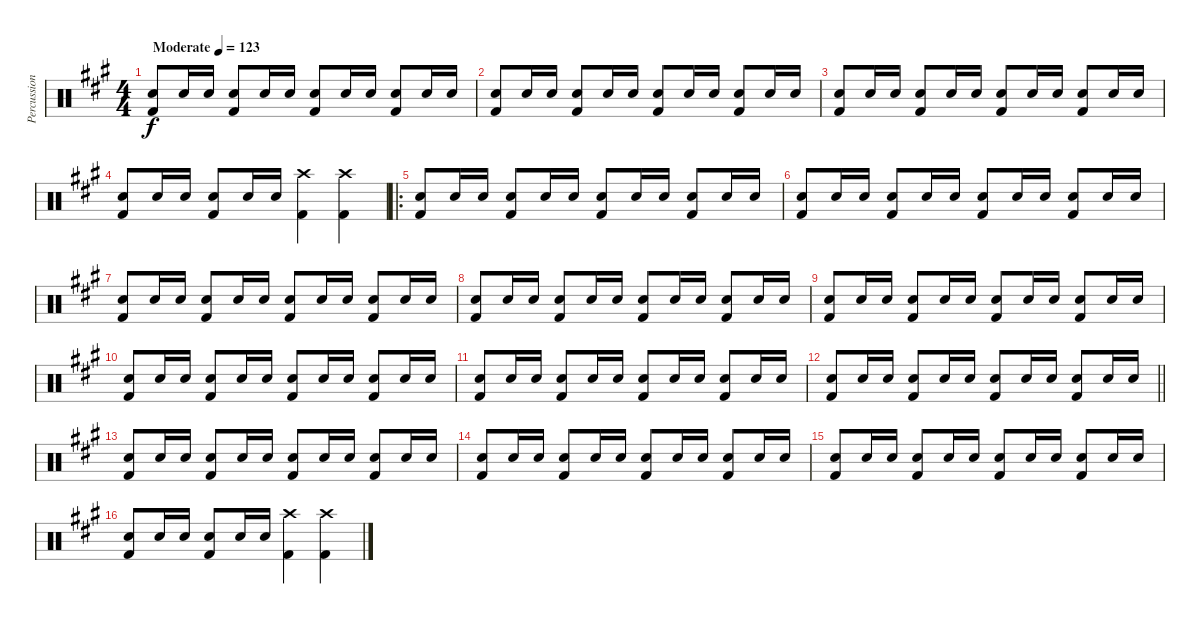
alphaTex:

\track ("Percussion" "Percussion") {instrument percussion}
\staff {score}
\articulation defaults
\ts (4 4)
\tempo (123 "Moderate")
\clef neutral
\ks a
("Snare (hit) 2" "Kick (hit) 2").8{dy f} "Snare (hit) 2".16 "Snare (hit) 2".16 ("Snare (hit) 2" "Kick (hit) 2").8 "Snare (hit) 2".16 "Snare (hit) 2".16 ("Snare (hit) 2" "Kick (hit) 2").8 "Snare (hit) 2".16 "Snare (hit) 2".16 ("Snare (hit) 2" "Kick (hit) 2").8 "Snare (hit) 2".16 "Snare (hit) 2".16 |
("Snare (hit) 2" "Kick (hit) 2").8 "Snare (hit) 2".16 "Snare (hit) 2".16 ("Snare (hit) 2" "Kick (hit) 2").8 "Snare (hit) 2".16 "Snare (hit) 2".16 ("Snare (hit) 2" "Kick (hit) 2").8 "Snare (hit) 2".16 "Snare (hit) 2".16 ("Snare (hit) 2" "Kick (hit) 2").8 "Snare (hit) 2".16 "Snare (hit) 2".16 |
("Snare (hit) 2" "Kick (hit) 2").8 "Snare (hit) 2".16 "Snare (hit) 2".16 ("Snare (hit) 2" "Kick (hit) 2").8 "Snare (hit) 2".16 "Snare (hit) 2".16 ("Snare (hit) 2" "Kick (hit) 2").8 "Snare (hit) 2".16 "Snare (hit) 2".16 ("Snare (hit) 2" "Kick (hit) 2").8 "Snare (hit) 2".16 "Snare (hit) 2".16 |
("Snare (hit) 2" "Kick (hit) 2").8 "Snare (hit) 2".16 "Snare (hit) 2".16 ("Snare (hit) 2" "Kick (hit) 2").8 "Snare (hit) 2".16 "Snare (hit) 2".16 ("Crash high (hit)" "Kick (hit) 2").4 ("Crash high (hit)" "Kick (hit) 2").4 |
\ro
("Snare (hit) 2" "Kick (hit) 2").8 "Snare (hit) 2".16 "Snare (hit) 2".16 ("Snare (hit) 2" "Kick (hit) 2").8 "Snare (hit) 2".16 "Snare (hit) 2".16 ("Snare (hit) 2" "Kick (hit) 2").8 "Snare (hit) 2".16 "Snare (hit) 2".16 ("Snare (hit) 2" "Kick (hit) 2").8 "Snare (hit) 2".16 "Snare (hit) 2".16 |
("Snare (hit) 2" "Kick (hit) 2").8 "Snare (hit) 2".16 "Snare (hit) 2".16 ("Snare (hit) 2" "Kick (hit) 2").8 "Snare (hit) 2".16 "Snare (hit) 2".16 ("Snare (hit) 2" "Kick (hit) 2").8 "Snare (hit) 2".16 "Snare (hit) 2".16 ("Snare (hit) 2" "Kick (hit) 2").8 "Snare (hit) 2".16 "Snare (hit) 2".16 |
("Snare (hit) 2" "Kick (hit) 2").8 "Snare (hit) 2".16 "Snare (hit) 2".16 ("Snare (hit) 2" "Kick (hit) 2").8 "Snare (hit) 2".16 "Snare (hit) 2".16 ("Snare (hit) 2" "Kick (hit) 2").8 "Snare (hit) 2".16 "Snare (hit) 2".16 ("Snare (hit) 2" "Kick (hit) 2").8 "Snare (hit) 2".16 "Snare (hit) 2".16 |
("Snare (hit) 2" "Kick (hit) 2").8 "Snare (hit) 2".16 "Snare (hit) 2".16 ("Snare (hit) 2" "Kick (hit) 2").8 "Snare (hit) 2".16 "Snare (hit) 2".16 ("Snare (hit) 2" "Kick (hit) 2").8 "Snare (hit) 2".16 "Snare (hit) 2".16 ("Snare (hit) 2" "Kick (hit) 2").8 "Snare (hit) 2".16 "Snare (hit) 2".16 |
("Snare (hit) 2" "Kick (hit) 2").8 "Snare (hit) 2".16 "Snare (hit) 2".16 ("Snare (hit) 2" "Kick (hit) 2").8 "Snare (hit) 2".16 "Snare (hit) 2".16 ("Snare (hit) 2" "Kick (hit) 2").8 "Snare (hit) 2".16 "Snare (hit) 2".16 ("Snare (hit) 2" "Kick (hit) 2").8 "Snare (hit) 2".16 "Snare (hit) 2".16 |
("Snare (hit) 2" "Kick (hit) 2").8 "Snare (hit) 2".16 "Snare (hit) 2".16 ("Snare (hit) 2" "Kick (hit) 2").8 "Snare (hit) 2".16 "Snare (hit) 2".16 ("Snare (hit) 2" "Kick (hit) 2").8 "Snare (hit) 2".16 "Snare (hit) 2".16 ("Snare (hit) 2" "Kick (hit) 2").8 "Snare (hit) 2".16 "Snare (hit) 2".16 |
("Snare (hit) 2" "Kick (hit) 2").8 "Snare (hit) 2".16 "Snare (hit) 2".16 ("Snare (hit) 2" "Kick (hit) 2").8 "Snare (hit) 2".16 "Snare (hit) 2".16 ("Snare (hit) 2" "Kick (hit) 2").8 "Snare (hit) 2".16 "Snare (hit) 2".16 ("Snare (hit) 2" "Kick (hit) 2").8 "Snare (hit) 2".16 "Snare (hit) 2".16 |
\barLineRight lightlight
("Snare (hit) 2" "Kick (hit) 2").8 "Snare (hit) 2".16 "Snare (hit) 2".16 ("Snare (hit) 2" "Kick (hit) 2").8 "Snare (hit) 2".16 "Snare (hit) 2".16 ("Snare (hit) 2" "Kick (hit) 2").8 "Snare (hit) 2".16 "Snare (hit) 2".16 ("Snare (hit) 2" "Kick (hit) 2").8 "Snare (hit) 2".16 "Snare (hit) 2".16 |
("Snare (hit) 2" "Kick (hit) 2").8 "Snare (hit) 2".16 "Snare (hit) 2".16 ("Snare (hit) 2" "Kick (hit) 2").8 "Snare (hit) 2".16 "Snare (hit) 2".16 ("Snare (hit) 2" "Kick (hit) 2").8 "Snare (hit) 2".16 "Snare (hit) 2".16 ("Snare (hit) 2" "Kick (hit) 2").8 "Snare (hit) 2".16 "Snare (hit) 2".16 |
("Snare (hit) 2" "Kick (hit) 2").8 "Snare (hit) 2".16 "Snare (hit) 2".16 ("Snare (hit) 2" "Kick (hit) 2").8 "Snare (hit) 2".16 "Snare (hit) 2".16 ("Snare (hit) 2" "Kick (hit) 2").8 "Snare (hit) 2".16 "Snare (hit) 2".16 ("Snare (hit) 2" "Kick (hit) 2").8 "Snare (hit) 2".16 "Snare (hit) 2".16 |
("Snare (hit) 2" "Kick (hit) 2").8 "Snare (hit) 2".16 "Snare (hit) 2".16 ("Snare (hit) 2" "Kick (hit) 2").8 "Snare (hit) 2".16 "Snare (hit) 2".16 ("Snare (hit) 2" "Kick (hit) 2").8 "Snare (hit) 2".16 "Snare (hit) 2".16 ("Snare (hit) 2" "Kick (hit) 2").8 "Snare (hit) 2".16 "Snare (hit) 2".16 |
("Snare (hit) 2" "Kick (hit) 2").8 "Snare (hit) 2".16 "Snare (hit) 2".16 ("Snare (hit) 2" "Kick (hit) 2").8 "Snare (hit) 2".16 "Snare (hit) 2".16 ("Crash high (hit)" "Kick (hit) 2").4 ("Crash high (hit)" "Kick (hit) 2").4
